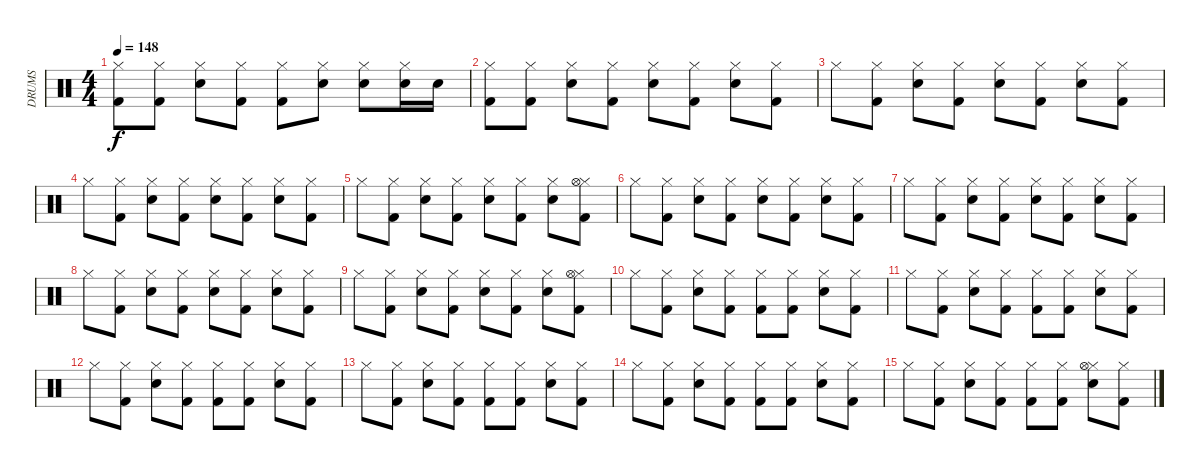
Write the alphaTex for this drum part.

\track ("DRUMS" "DRUMS") {instrument percussion}
\staff {score}
\articulation defaults
\ts (4 4)
\tempo 148
\clef neutral
\ks c
("Hi-Hat (closed)" "Kick (hit) 2").8{dy f} ("Hi-Hat (closed)" "Kick (hit) 2").8 ("Hi-Hat (closed)" "Snare (hit) 2").8 ("Hi-Hat (closed)" "Kick (hit) 2").8 ("Hi-Hat (closed)" "Kick (hit) 2").8 ("Hi-Hat (closed)" "Snare (hit) 2").8 ("Hi-Hat (closed)" "Snare (hit) 2").8 ("Hi-Hat (closed)" "Snare (hit) 2").16 "Snare (hit) 2".16 |
("Hi-Hat (closed)" "Kick (hit) 2").8 ("Hi-Hat (closed)" "Kick (hit) 2").8 ("Hi-Hat (closed)" "Snare (hit) 2").8 ("Hi-Hat (closed)" "Kick (hit) 2").8 ("Hi-Hat (closed)" "Snare (hit) 2").8 ("Hi-Hat (closed)" "Kick (hit) 2").8 ("Hi-Hat (closed)" "Snare (hit) 2").8 ("Hi-Hat (closed)" "Kick (hit) 2").8 |
"Hi-Hat (closed)".8 ("Hi-Hat (closed)" "Kick (hit) 2").8 ("Hi-Hat (closed)" "Snare (hit) 2").8 ("Hi-Hat (closed)" "Kick (hit) 2").8 ("Hi-Hat (closed)" "Snare (hit) 2").8 ("Hi-Hat (closed)" "Kick (hit) 2").8 ("Hi-Hat (closed)" "Snare (hit) 2").8 ("Hi-Hat (closed)" "Kick (hit) 2").8 |
"Hi-Hat (closed)".8 ("Hi-Hat (closed)" "Kick (hit) 2").8 ("Hi-Hat (closed)" "Snare (hit) 2").8 ("Hi-Hat (closed)" "Kick (hit) 2").8 ("Hi-Hat (closed)" "Snare (hit) 2").8 ("Hi-Hat (closed)" "Kick (hit) 2").8 ("Hi-Hat (closed)" "Snare (hit) 2").8 ("Hi-Hat (closed)" "Kick (hit) 2").8 |
"Hi-Hat (closed)".8 ("Hi-Hat (closed)" "Kick (hit) 2").8 ("Hi-Hat (closed)" "Snare (hit) 2").8 ("Hi-Hat (closed)" "Kick (hit) 2").8 ("Hi-Hat (closed)" "Snare (hit) 2").8 ("Hi-Hat (closed)" "Kick (hit) 2").8 ("Hi-Hat (closed)" "Snare (hit) 2").8 ("Hi-Hat (closed)" "Hi-Hat (open)" "Kick (hit) 2").8 |
"Hi-Hat (closed)".8 ("Hi-Hat (closed)" "Kick (hit) 2").8 ("Hi-Hat (closed)" "Snare (hit) 2").8 ("Hi-Hat (closed)" "Kick (hit) 2").8 ("Hi-Hat (closed)" "Snare (hit) 2").8 ("Hi-Hat (closed)" "Kick (hit) 2").8 ("Hi-Hat (closed)" "Snare (hit) 2").8 ("Hi-Hat (closed)" "Kick (hit) 2").8 |
"Hi-Hat (closed)".8 ("Hi-Hat (closed)" "Kick (hit) 2").8 ("Hi-Hat (closed)" "Snare (hit) 2").8 ("Hi-Hat (closed)" "Kick (hit) 2").8 ("Hi-Hat (closed)" "Snare (hit) 2").8 ("Hi-Hat (closed)" "Kick (hit) 2").8 ("Hi-Hat (closed)" "Snare (hit) 2").8 ("Hi-Hat (closed)" "Kick (hit) 2").8 |
"Hi-Hat (closed)".8 ("Hi-Hat (closed)" "Kick (hit) 2").8 ("Hi-Hat (closed)" "Snare (hit) 2").8 ("Hi-Hat (closed)" "Kick (hit) 2").8 ("Hi-Hat (closed)" "Snare (hit) 2").8 ("Hi-Hat (closed)" "Kick (hit) 2").8 ("Hi-Hat (closed)" "Snare (hit) 2").8 ("Hi-Hat (closed)" "Kick (hit) 2").8 |
"Hi-Hat (closed)".8 ("Hi-Hat (closed)" "Kick (hit) 2").8 ("Hi-Hat (closed)" "Snare (hit) 2").8 ("Hi-Hat (closed)" "Kick (hit) 2").8 ("Hi-Hat (closed)" "Snare (hit) 2").8 ("Hi-Hat (closed)" "Kick (hit) 2").8 ("Hi-Hat (closed)" "Snare (hit) 2").8 ("Hi-Hat (closed)" "Hi-Hat (open)" "Kick (hit) 2").8 |
"Hi-Hat (closed)".8 ("Hi-Hat (closed)" "Kick (hit) 2").8 ("Hi-Hat (closed)" "Snare (hit) 2").8 ("Hi-Hat (closed)" "Kick (hit) 2").8 ("Hi-Hat (closed)" "Kick (hit) 2").8 ("Hi-Hat (closed)" "Kick (hit) 2").8 ("Hi-Hat (closed)" "Snare (hit) 2").8 ("Hi-Hat (closed)" "Kick (hit) 2").8 |
"Hi-Hat (closed)".8 ("Hi-Hat (closed)" "Kick (hit) 2").8 ("Hi-Hat (closed)" "Snare (hit) 2").8 ("Hi-Hat (closed)" "Kick (hit) 2").8 ("Hi-Hat (closed)" "Kick (hit) 2").8 ("Hi-Hat (closed)" "Kick (hit) 2").8 ("Hi-Hat (closed)" "Snare (hit) 2").8 ("Hi-Hat (closed)" "Kick (hit) 2").8 |
"Hi-Hat (closed)".8 ("Hi-Hat (closed)" "Kick (hit) 2").8 ("Hi-Hat (closed)" "Snare (hit) 2").8 ("Hi-Hat (closed)" "Kick (hit) 2").8 ("Hi-Hat (closed)" "Kick (hit) 2").8 ("Hi-Hat (closed)" "Kick (hit) 2").8 ("Hi-Hat (closed)" "Snare (hit) 2").8 ("Hi-Hat (closed)" "Kick (hit) 2").8 |
"Hi-Hat (closed)".8 ("Hi-Hat (closed)" "Kick (hit) 2").8 ("Hi-Hat (closed)" "Snare (hit) 2").8 ("Hi-Hat (closed)" "Kick (hit) 2").8 ("Hi-Hat (closed)" "Kick (hit) 2").8 ("Hi-Hat (closed)" "Kick (hit) 2").8 ("Hi-Hat (closed)" "Snare (hit) 2").8 ("Hi-Hat (closed)" "Kick (hit) 2").8 |
"Hi-Hat (closed)".8 ("Hi-Hat (closed)" "Kick (hit) 2").8 ("Hi-Hat (closed)" "Snare (hit) 2").8 ("Hi-Hat (closed)" "Kick (hit) 2").8 ("Hi-Hat (closed)" "Kick (hit) 2").8 ("Hi-Hat (closed)" "Kick (hit) 2").8 ("Hi-Hat (closed)" "Snare (hit) 2").8 ("Hi-Hat (closed)" "Kick (hit) 2").8 |
"Hi-Hat (closed)".8 ("Hi-Hat (closed)" "Kick (hit) 2").8 ("Hi-Hat (closed)" "Snare (hit) 2").8 ("Hi-Hat (closed)" "Kick (hit) 2").8 ("Hi-Hat (closed)" "Kick (hit) 2").8 ("Hi-Hat (closed)" "Kick (hit) 2").8 ("Hi-Hat (closed)" "Hi-Hat (open)" "Snare (hit) 2").8 ("Hi-Hat (closed)" "Kick (hit) 2").8
